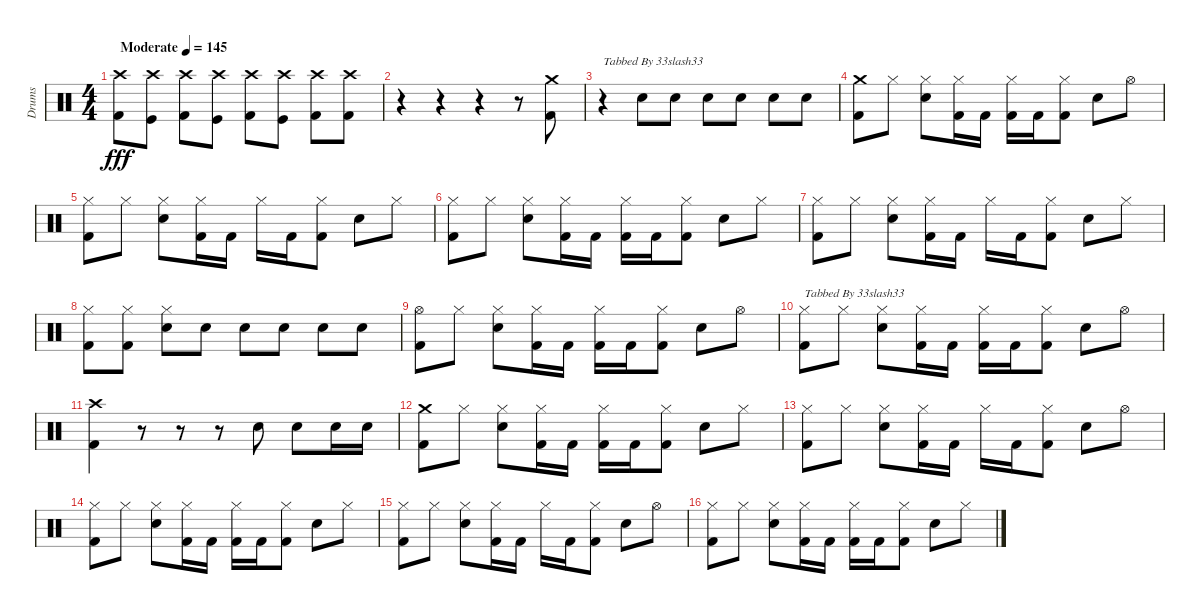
\track ("Drums" "Drums") {instrument percussion}
\staff {score}
\articulation defaults
\ts (4 4)
\tempo (145 "Moderate")
\clef neutral
\ks c
("Crash high (hit)" "Kick (hit) 2").8{dy fff} ("Crash high (hit)" "Kick (hit)").8 ("Crash high (hit)" "Kick (hit) 2").8 ("Crash high (hit)" "Kick (hit)").8 ("Crash high (hit)" "Kick (hit) 2").8 ("Crash high (hit)" "Kick (hit)").8 ("Crash high (hit)" "Kick (hit) 2").8 ("Crash high (hit)" "Kick (hit) 2").8 |
r.4 r.4 r.4 r.8 ("Crash medium (hit)" "Kick (hit) 2").8 |
r.4{txt "Tabbed By 33slash33"} "Snare (hit) 2".8 "Snare (hit) 2".8 "Snare (hit) 2".8 "Snare (hit) 2".8 "Snare (hit) 2".8 "Snare (hit) 2".8 |
("Crash medium (hit)" "Kick (hit) 2").8 "Hi-Hat (closed)".8 ("Hi-Hat (closed)" "Snare (hit) 2").8 ("Hi-Hat (closed)" "Kick (hit) 2").16 "Kick (hit) 2".16 ("Hi-Hat (closed)" "Kick (hit) 2").16 "Kick (hit) 2".16 ("Hi-Hat (closed)" "Kick (hit) 2").8 "Snare (hit) 2".8 "Hi-Hat (open)".8 |
("Hi-Hat (closed)" "Kick (hit) 2").8 "Hi-Hat (closed)".8 ("Hi-Hat (closed)" "Snare (hit) 2").8 ("Hi-Hat (closed)" "Kick (hit) 2").16 "Kick (hit) 2".16 "Hi-Hat (closed)".16 "Kick (hit) 2".16 ("Hi-Hat (closed)" "Kick (hit) 2").8 "Snare (hit) 2".8 "Hi-Hat (closed)".8 |
("Hi-Hat (closed)" "Kick (hit) 2").8 "Hi-Hat (closed)".8 ("Hi-Hat (closed)" "Snare (hit) 2").8 ("Hi-Hat (closed)" "Kick (hit) 2").16 "Kick (hit) 2".16 ("Hi-Hat (closed)" "Kick (hit) 2").16 "Kick (hit) 2".16 ("Hi-Hat (closed)" "Kick (hit) 2").8 "Snare (hit) 2".8 "Hi-Hat (closed)".8 |
("Hi-Hat (closed)" "Kick (hit) 2").8 "Hi-Hat (closed)".8 ("Hi-Hat (closed)" "Snare (hit) 2").8 ("Hi-Hat (closed)" "Kick (hit) 2").16 "Kick (hit) 2".16 "Hi-Hat (closed)".16 "Kick (hit) 2".16 ("Hi-Hat (closed)" "Kick (hit) 2").8 "Snare (hit) 2".8 "Hi-Hat (closed)".8 |
("Hi-Hat (closed)" "Kick (hit) 2").8 ("Hi-Hat (closed)" "Kick (hit) 2").8 ("Hi-Hat (closed)" "Snare (hit) 2").8 "Snare (hit) 2".8 "Snare (hit) 2".8 "Snare (hit) 2".8 "Snare (hit) 2".8 "Snare (hit) 2".8 |
("Hi-Hat (open)" "Kick (hit) 2").8 "Hi-Hat (closed)".8 ("Hi-Hat (closed)" "Snare (hit) 2").8 ("Hi-Hat (closed)" "Kick (hit) 2").16 "Kick (hit) 2".16 ("Hi-Hat (closed)" "Kick (hit) 2").16 "Kick (hit) 2".16 ("Hi-Hat (closed)" "Kick (hit) 2").8 "Snare (hit) 2".8 "Hi-Hat (open)".8 |
("Hi-Hat (closed)" "Kick (hit) 2").8{txt "Tabbed By 33slash33"} "Hi-Hat (closed)".8 ("Hi-Hat (closed)" "Snare (hit) 2").8 ("Hi-Hat (closed)" "Kick (hit) 2").16 "Kick (hit) 2".16 ("Hi-Hat (closed)" "Kick (hit) 2").16 "Kick (hit) 2".16 ("Hi-Hat (closed)" "Kick (hit) 2").8 "Snare (hit) 2".8 "Hi-Hat (open)".8 |
("Crash high (hit)" "Kick (hit) 2").4 r.8 r.8 r.8 "Snare (hit) 2".8 "Snare (hit) 2".8 "Snare (hit) 2".16 "Snare (hit) 2".16 |
("Crash medium (hit)" "Kick (hit) 2").8 "Hi-Hat (closed)".8 ("Hi-Hat (closed)" "Snare (hit) 2").8 ("Hi-Hat (closed)" "Kick (hit) 2").16 "Kick (hit) 2".16 ("Hi-Hat (closed)" "Kick (hit) 2").16 "Kick (hit) 2".16 ("Hi-Hat (closed)" "Kick (hit) 2").8 "Snare (hit) 2".8 "Hi-Hat (closed)".8 |
("Hi-Hat (closed)" "Kick (hit) 2").8 "Hi-Hat (closed)".8 ("Hi-Hat (closed)" "Snare (hit) 2").8 ("Hi-Hat (closed)" "Kick (hit) 2").16 "Kick (hit) 2".16 "Hi-Hat (closed)".16 "Kick (hit) 2".16 ("Hi-Hat (closed)" "Kick (hit) 2").8 "Snare (hit) 2".8 "Hi-Hat (open)".8 |
("Hi-Hat (closed)" "Kick (hit) 2").8 "Hi-Hat (closed)".8 ("Hi-Hat (closed)" "Snare (hit) 2").8 ("Hi-Hat (closed)" "Kick (hit) 2").16 "Kick (hit) 2".16 ("Hi-Hat (closed)" "Kick (hit) 2").16 "Kick (hit) 2".16 ("Hi-Hat (closed)" "Kick (hit) 2").8 "Snare (hit) 2".8 "Hi-Hat (closed)".8 |
("Hi-Hat (closed)" "Kick (hit) 2").8 "Hi-Hat (closed)".8 ("Hi-Hat (closed)" "Snare (hit) 2").8 ("Hi-Hat (closed)" "Kick (hit) 2").16 "Kick (hit) 2".16 "Hi-Hat (closed)".16 "Kick (hit) 2".16 ("Hi-Hat (closed)" "Kick (hit) 2").8 "Snare (hit) 2".8 "Hi-Hat (open)".8 |
("Hi-Hat (closed)" "Kick (hit) 2").8 "Hi-Hat (closed)".8 ("Hi-Hat (closed)" "Snare (hit) 2").8 ("Hi-Hat (closed)" "Kick (hit) 2").16 "Kick (hit) 2".16 ("Hi-Hat (closed)" "Kick (hit) 2").16 "Kick (hit) 2".16 ("Hi-Hat (closed)" "Kick (hit) 2").8 "Snare (hit) 2".8 "Hi-Hat (closed)".8
